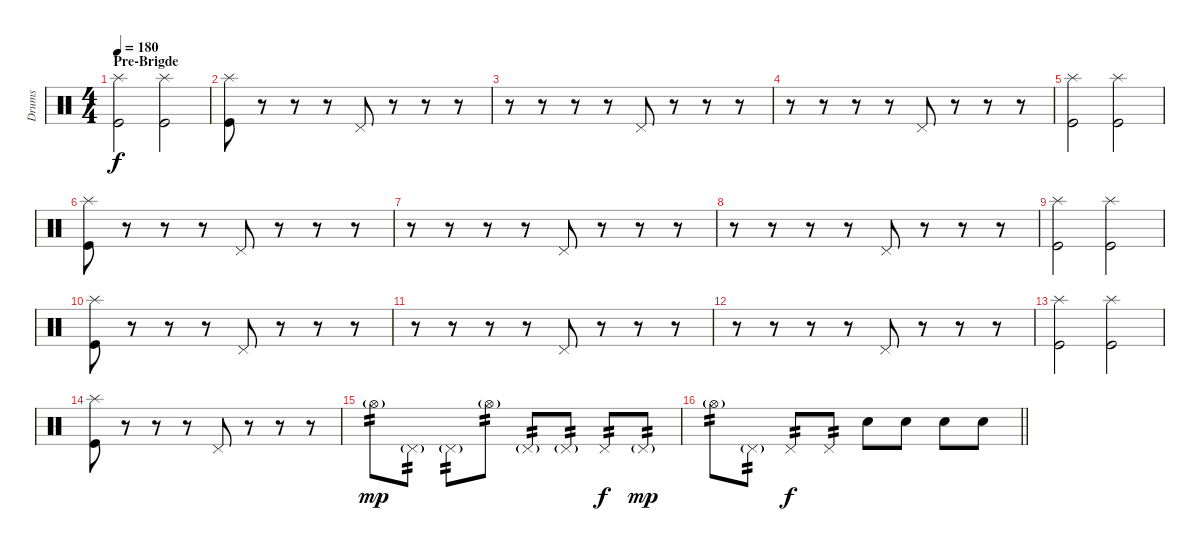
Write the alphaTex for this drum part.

\track ("Drums" "Drums") {instrument percussion}
\staff {score}
\articulation defaults
\ts (4 4)
\section ("" "Pre-Brigde")
\tempo 180
\clef neutral
\ks c
("Splash (hit)" "Kick (hit)").2{dy f} ("Splash (hit)" "Kick (hit)").2 |
("Splash (hit)" "Kick (hit)").8 r.8 r.8 r.8 "Pedal Hi-Hat (hit)".8 r.8 r.8 r.8 |
r.8 r.8 r.8 r.8 "Pedal Hi-Hat (hit)".8 r.8 r.8 r.8 |
r.8 r.8 r.8 r.8 "Pedal Hi-Hat (hit)".8 r.8 r.8 r.8 |
("Splash (hit)" "Kick (hit)").2 ("Splash (hit)" "Kick (hit)").2 |
("Splash (hit)" "Kick (hit)").8 r.8 r.8 r.8 "Pedal Hi-Hat (hit)".8 r.8 r.8 r.8 |
r.8 r.8 r.8 r.8 "Pedal Hi-Hat (hit)".8 r.8 r.8 r.8 |
r.8 r.8 r.8 r.8 "Pedal Hi-Hat (hit)".8 r.8 r.8 r.8 |
("Splash (hit)" "Kick (hit)").2 ("Splash (hit)" "Kick (hit)").2 |
("Splash (hit)" "Kick (hit)").8 r.8 r.8 r.8 "Pedal Hi-Hat (hit)".8 r.8 r.8 r.8 |
r.8 r.8 r.8 r.8 "Pedal Hi-Hat (hit)".8 r.8 r.8 r.8 |
r.8 r.8 r.8 r.8 "Pedal Hi-Hat (hit)".8 r.8 r.8 r.8 |
("Splash (hit)" "Kick (hit)").2 ("Splash (hit)" "Kick (hit)").2 |
("Splash (hit)" "Kick (hit)").8 r.8 r.8 r.8 "Pedal Hi-Hat (hit)".8 r.8 r.8 r.8 |
"Hi-Hat (open)"{g}.8{tp 2 dy mp} "Pedal Hi-Hat (hit)"{g}.8{tp 2} "Pedal Hi-Hat (hit)"{g}.8{tp 2} "Hi-Hat (open)"{g}.8{tp 2} "Pedal Hi-Hat (hit)"{g}.8{tp 2} "Pedal Hi-Hat (hit)"{g}.8{tp 2} "Pedal Hi-Hat (hit)".8{tp 2 dy f} "Pedal Hi-Hat (hit)"{g}.8{tp 2 dy mp} |
\barLineRight lightlight "Hi-Hat (open)"{g}.8{tp 2} "Pedal Hi-Hat (hit)"{g}.8{tp 2} "Pedal Hi-Hat (hit)".8{tp 2 dy f} "Pedal Hi-Hat (hit)".8{tp 2} "Snare (hit) 2".8 "Snare (hit) 2".8 "Snare (hit) 2".8 "Snare (hit) 2".8
